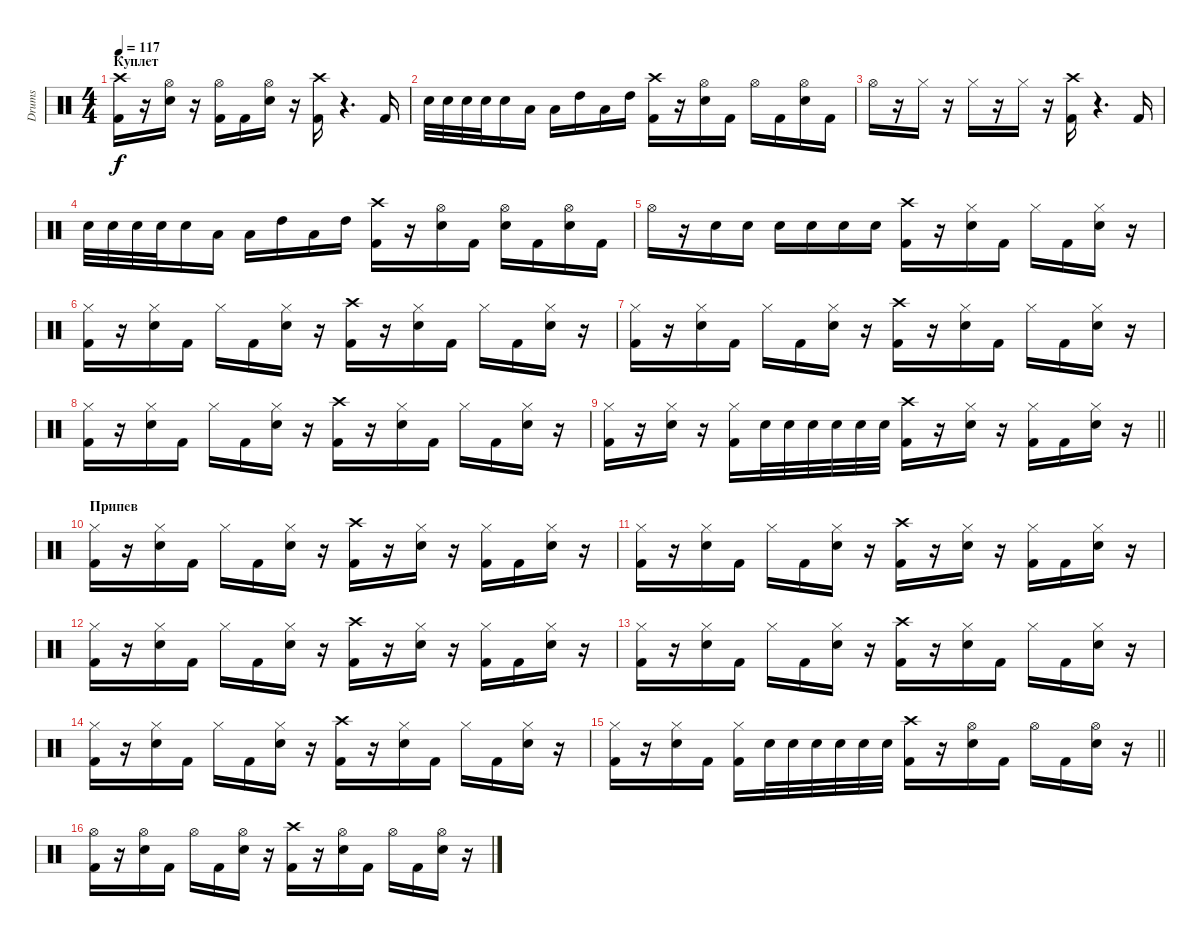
\track ("Drums" "Drums") {instrument percussion}
\staff {score}
\articulation defaults
\ts (4 4)
\section ("" "Куплет")
\tempo 117
\clef neutral
\ks c
("Kick (hit) 2" "Crash high (hit)").16{dy f} r.16 ("Snare (hit) 2" "Hi-Hat (open)").16 r.16 ("Kick (hit) 2" "Hi-Hat (open)").16 "Kick (hit) 2".16 ("Snare (hit) 2" "Hi-Hat (open)").16 r.16 ("Kick (hit) 2" "Crash high (hit)").16 r.4{d} "Kick (hit) 2".16 |
"Snare (hit) 2".32 "Snare (hit) 2".32 "Snare (hit) 2".32 "Snare (hit) 2".32 "Snare (hit) 2".16 "Low Floor Tom (hit)".16 "Low Tom (hit)".16 "High Tom (hit)".16 "Low Tom (hit)".16 "High Tom (hit)".16 ("Kick (hit) 2" "Crash high (hit)").16 r.16 ("Snare (hit) 2" "Hi-Hat (open)").16 "Kick (hit) 2".16 "Hi-Hat (open)".16 "Kick (hit) 2".16 ("Snare (hit) 2" "Hi-Hat (open)").16 "Kick (hit) 2".16 |
"Hi-Hat (open)".16 r.16 "Hi-Hat (closed)".16 r.16 "Hi-Hat (closed)".16 r.16 "Hi-Hat (closed)".16 r.16 ("Kick (hit) 2" "Crash high (hit)").16 r.4{d} "Kick (hit) 2".16 |
"Snare (hit) 2".32 "Snare (hit) 2".32 "Snare (hit) 2".32 "Snare (hit) 2".32 "Snare (hit) 2".16 "Low Floor Tom (hit)".16 "Low Tom (hit)".16 "High Tom (hit)".16 "Low Tom (hit)".16 "High Tom (hit)".16 ("Kick (hit) 2" "Crash high (hit)").16 r.16 ("Snare (hit) 2" "Hi-Hat (open)").16 "Kick (hit) 2".16 ("Snare (hit) 2" "Hi-Hat (open)").16 "Kick (hit) 2".16 ("Snare (hit) 2" "Hi-Hat (open)").16 "Kick (hit) 2".16 |
"Hi-Hat (open)".16 r.16 "Snare (hit) 2".16 "Snare (hit) 2".16 "Snare (hit) 2".16 "Snare (hit) 2".16 "Snare (hit) 2".16 "Snare (hit) 2".16 ("Kick (hit) 2" "Crash high (hit)").16 r.16 ("Snare (hit) 2" "Hi-Hat (closed)").16 "Kick (hit) 2".16 "Hi-Hat (closed)".16 "Kick (hit) 2".16 ("Snare (hit) 2" "Hi-Hat (closed)").16 r.16 |
("Kick (hit) 2" "Hi-Hat (closed)").16 r.16 ("Snare (hit) 2" "Hi-Hat (closed)").16 "Kick (hit) 2".16 "Hi-Hat (closed)".16 "Kick (hit) 2".16 ("Snare (hit) 2" "Hi-Hat (closed)").16 r.16 ("Kick (hit) 2" "Crash high (hit)").16 r.16 ("Snare (hit) 2" "Hi-Hat (closed)").16 "Kick (hit) 2".16 "Hi-Hat (closed)".16 "Kick (hit) 2".16 ("Snare (hit) 2" "Hi-Hat (closed)").16 r.16 |
("Kick (hit) 2" "Hi-Hat (closed)").16 r.16 ("Snare (hit) 2" "Hi-Hat (closed)").16 "Kick (hit) 2".16 "Hi-Hat (closed)".16 "Kick (hit) 2".16 ("Snare (hit) 2" "Hi-Hat (closed)").16 r.16 ("Kick (hit) 2" "Crash high (hit)").16 r.16 ("Snare (hit) 2" "Hi-Hat (closed)").16 "Kick (hit) 2".16 "Hi-Hat (closed)".16 "Kick (hit) 2".16 ("Snare (hit) 2" "Hi-Hat (closed)").16 r.16 |
("Kick (hit) 2" "Hi-Hat (closed)").16 r.16 ("Snare (hit) 2" "Hi-Hat (closed)").16 "Kick (hit) 2".16 "Hi-Hat (closed)".16 "Kick (hit) 2".16 ("Snare (hit) 2" "Hi-Hat (closed)").16 r.16 ("Kick (hit) 2" "Crash high (hit)").16 r.16 ("Snare (hit) 2" "Hi-Hat (closed)").16 "Kick (hit) 2".16 "Hi-Hat (closed)".16 "Kick (hit) 2".16 ("Snare (hit) 2" "Hi-Hat (closed)").16 r.16 |
\barLineRight lightlight
("Kick (hit) 2" "Hi-Hat (closed)").16 r.16 ("Snare (hit) 2" "Hi-Hat (closed)").16 r.16 ("Hi-Hat (closed)" "Kick (hit) 2").16 "Snare (hit) 2".32 "Snare (hit) 2".32 "Snare (hit) 2".32 "Snare (hit) 2".32 "Snare (hit) 2".32 "Snare (hit) 2".32 ("Kick (hit) 2" "Crash high (hit)").16 r.16 ("Snare (hit) 2" "Hi-Hat (closed)").16 r.16 ("Kick (hit) 2" "Hi-Hat (closed)").16 "Kick (hit) 2".16 ("Snare (hit) 2" "Hi-Hat (closed)").16 r.16 |
\section ("" "Припев")
("Kick (hit) 2" "Hi-Hat (closed)").16 r.16 ("Snare (hit) 2" "Hi-Hat (closed)").16 "Kick (hit) 2".16 "Hi-Hat (closed)".16 "Kick (hit) 2".16 ("Snare (hit) 2" "Hi-Hat (closed)").16 r.16 ("Kick (hit) 2" "Crash high (hit)").16 r.16 ("Snare (hit) 2" "Hi-Hat (closed)").16 r.16 ("Kick (hit) 2" "Hi-Hat (closed)").16 "Kick (hit) 2".16 ("Snare (hit) 2" "Hi-Hat (closed)").16 r.16 |
("Kick (hit) 2" "Hi-Hat (closed)").16 r.16 ("Snare (hit) 2" "Hi-Hat (closed)").16 "Kick (hit) 2".16 "Hi-Hat (closed)".16 "Kick (hit) 2".16 ("Snare (hit) 2" "Hi-Hat (closed)").16 r.16 ("Kick (hit) 2" "Crash high (hit)").16 r.16 ("Snare (hit) 2" "Hi-Hat (closed)").16 r.16 ("Kick (hit) 2" "Hi-Hat (closed)").16 "Kick (hit) 2".16 ("Snare (hit) 2" "Hi-Hat (closed)").16 r.16 |
("Kick (hit) 2" "Hi-Hat (closed)").16 r.16 ("Snare (hit) 2" "Hi-Hat (closed)").16 "Kick (hit) 2".16 "Hi-Hat (closed)".16 "Kick (hit) 2".16 ("Snare (hit) 2" "Hi-Hat (closed)").16 r.16 ("Kick (hit) 2" "Crash high (hit)").16 r.16 ("Snare (hit) 2" "Hi-Hat (closed)").16 r.16 ("Kick (hit) 2" "Hi-Hat (closed)").16 "Kick (hit) 2".16 ("Snare (hit) 2" "Hi-Hat (closed)").16 r.16 |
("Kick (hit) 2" "Hi-Hat (closed)").16 r.16 ("Snare (hit) 2" "Hi-Hat (closed)").16 "Kick (hit) 2".16 "Hi-Hat (closed)".16 "Kick (hit) 2".16 ("Snare (hit) 2" "Hi-Hat (closed)").16 r.16 ("Kick (hit) 2" "Crash high (hit)").16 r.16 ("Snare (hit) 2" "Hi-Hat (closed)").16 "Kick (hit) 2".16 "Hi-Hat (closed)".16 "Kick (hit) 2".16 ("Snare (hit) 2" "Hi-Hat (closed)").16 r.16 |
("Kick (hit) 2" "Hi-Hat (closed)").16 r.16 ("Snare (hit) 2" "Hi-Hat (closed)").16 "Kick (hit) 2".16 "Hi-Hat (closed)".16 "Kick (hit) 2".16 ("Snare (hit) 2" "Hi-Hat (closed)").16 r.16 ("Kick (hit) 2" "Crash high (hit)").16 r.16 ("Snare (hit) 2" "Hi-Hat (closed)").16 "Kick (hit) 2".16 "Hi-Hat (closed)".16 "Kick (hit) 2".16 ("Snare (hit) 2" "Hi-Hat (closed)").16 r.16 |
\barLineRight lightlight
("Kick (hit) 2" "Hi-Hat (closed)").16 r.16 ("Snare (hit) 2" "Hi-Hat (closed)").16 "Kick (hit) 2".16 ("Hi-Hat (closed)" "Kick (hit) 2").16 "Snare (hit) 2".32 "Snare (hit) 2".32 "Snare (hit) 2".32 "Snare (hit) 2".32 "Snare (hit) 2".32 "Snare (hit) 2".32 ("Kick (hit) 2" "Crash high (hit)").16 r.16 ("Snare (hit) 2" "Hi-Hat (open)").16 "Kick (hit) 2".16 "Hi-Hat (open)".16 "Kick (hit) 2".16 ("Snare (hit) 2" "Hi-Hat (open)").16 r.16 |
("Kick (hit) 2" "Hi-Hat (open)").16 r.16 ("Snare (hit) 2" "Hi-Hat (open)").16 "Kick (hit) 2".16 "Hi-Hat (open)".16 "Kick (hit) 2".16 ("Snare (hit) 2" "Hi-Hat (open)").16 r.16 ("Kick (hit) 2" "Crash high (hit)").16 r.16 ("Snare (hit) 2" "Hi-Hat (open)").16 "Kick (hit) 2".16 "Hi-Hat (open)".16 "Kick (hit) 2".16 ("Snare (hit) 2" "Hi-Hat (open)").16 r.16
